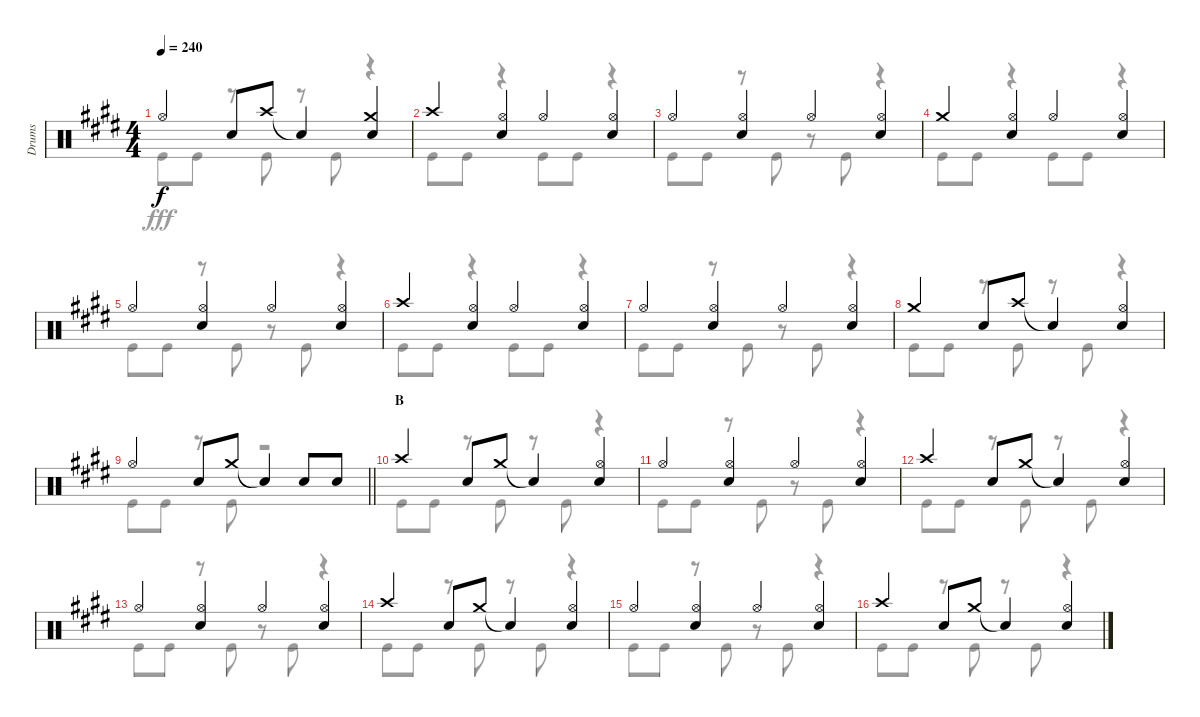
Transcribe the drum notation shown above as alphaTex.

\track ("Drums" "Drums") {instrument percussion}
\staff {score}
\articulation defaults
\voice
\ts (4 4)
\tempo 240
\clef neutral
\ks e "Hi-Hat (open)".4{dy f} "Snare (hit) 2".8 "Crash high (hit)".8 "Snare (hit)"{t}.4
("Crash medium (hit)" "Snare (hit) 2").4 |
"Crash high (hit)".4 ("Hi-Hat (open)" "Snare (hit) 2").4 "Hi-Hat (open)".4 ("Hi-Hat (open)" "Snare (hit) 2").4 |
"Hi-Hat (open)".4 ("Hi-Hat (open)" "Snare (hit) 2").4 "Hi-Hat (open)".4 ("Hi-Hat (open)" "Snare (hit) 2").4 |
"Crash medium (hit)".4 ("Hi-Hat (open)" "Snare (hit) 2").4 "Hi-Hat (open)".4 ("Hi-Hat (open)" "Snare (hit) 2").4 |
"Hi-Hat (open)".4 ("Hi-Hat (open)" "Snare (hit) 2").4 "Hi-Hat (open)".4 ("Hi-Hat (open)" "Snare (hit) 2").4 |
"Crash high (hit)".4 ("Hi-Hat (open)" "Snare (hit) 2").4 "Hi-Hat (open)".4 ("Hi-Hat (open)" "Snare (hit) 2").4 |
"Hi-Hat (open)".4 ("Hi-Hat (open)" "Snare (hit) 2").4 "Hi-Hat (open)".4 ("Hi-Hat (open)" "Snare (hit) 2").4 |
"Crash medium (hit)".4 "Snare (hit) 2".8 "Crash high (hit)".8 "Snare (hit)"{t}.4 ("Hi-Hat (open)" "Snare (hit) 2").4 |
\barLineRight lightlight "Hi-Hat (open)".4 "Snare (hit) 2".8 "Crash medium (hit)".8 "Snare (hit)"{t}.4 "Snare (hit) 2".8 "Snare (hit) 2".8
|
\section ("" "B")
"Crash high (hit)".4 "Snare (hit) 2".8 "Crash medium (hit)".8 "Snare (hit)"{t}.4 ("Hi-Hat (open)" "Snare (hit) 2").4 |
"Hi-Hat (open)".4 ("Hi-Hat (open)" "Snare (hit) 2").4 "Hi-Hat (open)".4 ("Hi-Hat (open)" "Snare (hit) 2").4 |
"Crash high (hit)".4 "Snare (hit) 2".8 "Crash medium (hit)".8 "Snare (hit)"{t}.4 ("Hi-Hat (open)" "Snare (hit) 2").4 |
"Hi-Hat (open)".4 ("Hi-Hat (open)" "Snare (hit) 2").4 "Hi-Hat (open)".4 ("Hi-Hat (open)" "Snare (hit) 2").4 |
"Crash high (hit)".4 "Snare (hit) 2".8 "Crash medium (hit)".8 "Snare (hit)"{t}.4 ("Hi-Hat (open)" "Snare (hit) 2").4 |
"Hi-Hat (open)".4 ("Hi-Hat (open)" "Snare (hit) 2").4 "Hi-Hat (open)".4 ("Hi-Hat (open)" "Snare (hit) 2").4 |
"Crash high (hit)".4 "Snare (hit) 2".8 "Crash medium (hit)".8 "Snare (hit)"{t}.4 ("Hi-Hat (open)" "Snare (hit) 2").4
\voice
\clef neutral
\ottava regular
\simile none
\ks e "Kick (hit)".8{dy fff} "Kick (hit)".8
r.8 "Kick (hit)".8 r.8 "Kick (hit)".8 r.4 |
"Kick (hit)".8 "Kick (hit)".8 r.4 "Kick (hit)".8 "Kick (hit)".8 r.4 |
"Kick (hit)".8 "Kick (hit)".8 r.8 "Kick (hit)".8 r.8 "Kick (hit)".8 r.4 |
"Kick (hit)".8 "Kick (hit)".8 r.4 "Kick (hit)".8 "Kick (hit)".8 r.4 |
"Kick (hit)".8 "Kick (hit)".8 r.8 "Kick (hit)".8 r.8 "Kick (hit)".8 r.4 |
"Kick (hit)".8 "Kick (hit)".8 r.4 "Kick (hit)".8 "Kick (hit)".8 r.4 |
"Kick (hit)".8 "Kick (hit)".8 r.8 "Kick (hit)".8 r.8 "Kick (hit)".8 r.4 |
"Kick (hit)".8 "Kick (hit)".8 r.8 "Kick (hit)".8 r.8 "Kick (hit)".8 r.4 |
\barLineRight lightlight "Kick (hit)".8 "Kick (hit)".8
r.8 "Kick (hit)".8 r.2 |
"Kick (hit)".8 "Kick (hit)".8 r.8 "Kick (hit)".8 r.8 "Kick (hit)".8 r.4 |
"Kick (hit)".8 "Kick (hit)".8 r.8 "Kick (hit)".8 r.8 "Kick (hit)".8 r.4 |
"Kick (hit)".8 "Kick (hit)".8 r.8 "Kick (hit)".8 r.8 "Kick (hit)".8 r.4 |
"Kick (hit)".8 "Kick (hit)".8 r.8 "Kick (hit)".8 r.8 "Kick (hit)".8 r.4 |
"Kick (hit)".8 "Kick (hit)".8 r.8 "Kick (hit)".8 r.8 "Kick (hit)".8 r.4 |
"Kick (hit)".8 "Kick (hit)".8 r.8 "Kick (hit)".8 r.8 "Kick (hit)".8 r.4 |
"Kick (hit)".8 "Kick (hit)".8 r.8 "Kick (hit)".8 r.8 "Kick (hit)".8 r.4
